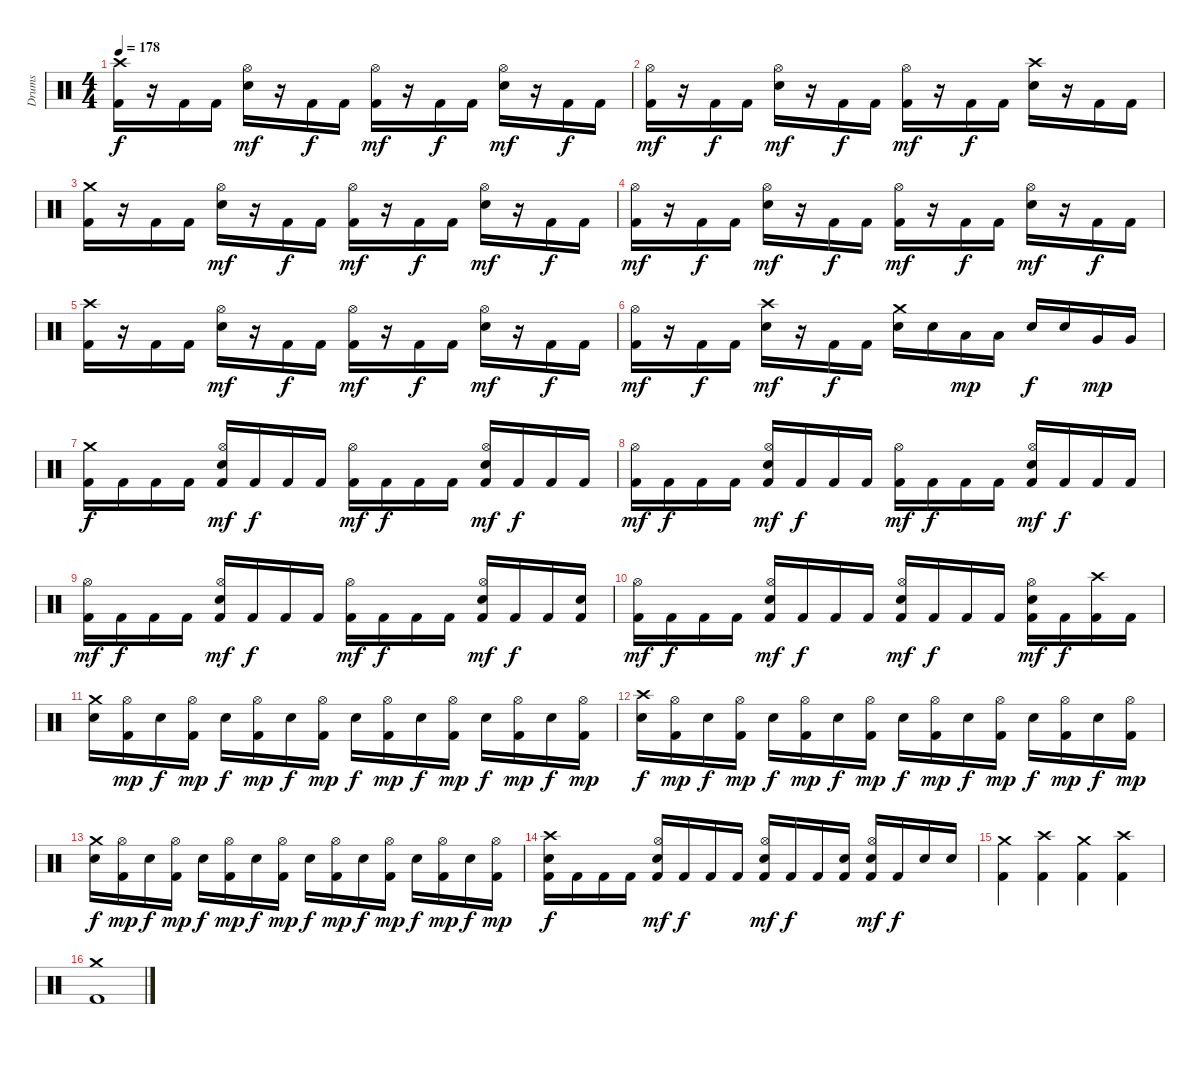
\track ("Drums" "Drums") {instrument percussion}
\staff {score}
\articulation defaults
\ts (4 4)
\tempo 178
\clef neutral
\ks c
("Crash high (hit)" "Kick (hit) 2").16{dy f} r.16 "Kick (hit) 2".16 "Kick (hit) 2".16 ("Hi-Hat (open)" "Snare (hit) 2").16{dy mf} r.16 "Kick (hit) 2".16{dy f} "Kick (hit) 2".16 ("Hi-Hat (open)" "Kick (hit) 2").16{dy mf} r.16 "Kick (hit) 2".16{dy f} "Kick (hit) 2".16 ("Hi-Hat (open)" "Snare (hit) 2").16{dy mf} r.16 "Kick (hit) 2".16{dy f} "Kick (hit) 2".16 |
("Hi-Hat (open)" "Kick (hit) 2").16{dy mf} r.16 "Kick (hit) 2".16{dy f} "Kick (hit) 2".16 ("Hi-Hat (open)" "Snare (hit) 2").16{dy mf} r.16 "Kick (hit) 2".16{dy f} "Kick (hit) 2".16 ("Hi-Hat (open)" "Kick (hit) 2").16{dy mf} r.16 "Kick (hit) 2".16{dy f} "Kick (hit) 2".16 ("Crash high (hit)" "Snare (hit) 2").16 r.16 "Kick (hit) 2".16 "Kick (hit) 2".16 |
("Crash medium (hit)" "Kick (hit) 2").16 r.16 "Kick (hit) 2".16 "Kick (hit) 2".16 ("Hi-Hat (open)" "Snare (hit) 2").16{dy mf} r.16 "Kick (hit) 2".16{dy f} "Kick (hit) 2".16 ("Hi-Hat (open)" "Kick (hit) 2").16{dy mf} r.16 "Kick (hit) 2".16{dy f} "Kick (hit) 2".16 ("Hi-Hat (open)" "Snare (hit) 2").16{dy mf} r.16 "Kick (hit) 2".16{dy f} "Kick (hit) 2".16 |
("Hi-Hat (open)" "Kick (hit) 2").16{dy mf} r.16 "Kick (hit) 2".16{dy f} "Kick (hit) 2".16 ("Hi-Hat (open)" "Snare (hit) 2").16{dy mf} r.16 "Kick (hit) 2".16{dy f} "Kick (hit) 2".16 ("Hi-Hat (open)" "Kick (hit) 2").16{dy mf} r.16 "Kick (hit) 2".16{dy f} "Kick (hit) 2".16 ("Hi-Hat (open)" "Snare (hit) 2").16{dy mf} r.16 "Kick (hit) 2".16{dy f} "Kick (hit) 2".16 |
("Crash high (hit)" "Kick (hit) 2").16 r.16 "Kick (hit) 2".16 "Kick (hit) 2".16 ("Hi-Hat (open)" "Snare (hit) 2").16{dy mf} r.16 "Kick (hit) 2".16{dy f} "Kick (hit) 2".16 ("Hi-Hat (open)" "Kick (hit) 2").16{dy mf} r.16 "Kick (hit) 2".16{dy f} "Kick (hit) 2".16 ("Hi-Hat (open)" "Snare (hit) 2").16{dy mf} r.16 "Kick (hit) 2".16{dy f} "Kick (hit) 2".16 |
("Hi-Hat (open)" "Kick (hit) 2").16{dy mf} r.16 "Kick (hit) 2".16{dy f} "Kick (hit) 2".16 ("Crash high (hit)" "Snare (hit) 2").16{dy mf} r.16 "Kick (hit) 2".16{dy f} "Kick (hit) 2".16 ("Crash medium (hit)" "Snare (hit) 2").16 "Snare (hit) 2".16 "Low Tom (hit)".16{dy mp} "Low Tom (hit)".16 "Snare (hit) 2".16{dy f} "Snare (hit) 2".16 "Very Low Tom (hit)".16{dy mp} "Very Low Tom (hit)".16 |
("Crash medium (hit)" "Kick (hit) 2").16{dy f} "Kick (hit) 2".16 "Kick (hit) 2".16 "Kick (hit) 2".16 ("Hi-Hat (open)" "Snare (hit) 2" "Kick (hit) 2").16{dy mf} "Kick (hit) 2".16{dy f} "Kick (hit) 2".16 "Kick (hit) 2".16 ("Hi-Hat (open)" "Kick (hit) 2").16{dy mf} "Kick (hit) 2".16{dy f} "Kick (hit) 2".16 "Kick (hit) 2".16 ("Hi-Hat (open)" "Snare (hit) 2" "Kick (hit) 2").16{dy mf} "Kick (hit) 2".16{dy f} "Kick (hit) 2".16 "Kick (hit) 2".16 |
("Hi-Hat (open)" "Kick (hit) 2").16{dy mf} "Kick (hit) 2".16{dy f} "Kick (hit) 2".16 "Kick (hit) 2".16 ("Hi-Hat (open)" "Snare (hit) 2" "Kick (hit) 2").16{dy mf} "Kick (hit) 2".16{dy f} "Kick (hit) 2".16 "Kick (hit) 2".16 ("Hi-Hat (open)" "Kick (hit) 2").16{dy mf} "Kick (hit) 2".16{dy f} "Kick (hit) 2".16 "Kick (hit) 2".16 ("Hi-Hat (open)" "Snare (hit) 2" "Kick (hit) 2").16{dy mf} "Kick (hit) 2".16{dy f} "Kick (hit) 2".16 "Kick (hit) 2".16 |
("Hi-Hat (open)" "Kick (hit) 2").16{dy mf} "Kick (hit) 2".16{dy f} "Kick (hit) 2".16 "Kick (hit) 2".16 ("Hi-Hat (open)" "Snare (hit) 2" "Kick (hit) 2").16{dy mf} "Kick (hit) 2".16{dy f} "Kick (hit) 2".16 "Kick (hit) 2".16 ("Hi-Hat (open)" "Kick (hit) 2").16{dy mf} "Kick (hit) 2".16{dy f} "Kick (hit) 2".16 "Kick (hit) 2".16 ("Hi-Hat (open)" "Snare (hit) 2" "Kick (hit) 2").16{dy mf} "Kick (hit) 2".16{dy f} "Kick (hit) 2".16 ("Snare (hit) 2" "Kick (hit) 2").16 |
("Hi-Hat (open)" "Kick (hit) 2").16{dy mf} "Kick (hit) 2".16{dy f} "Kick (hit) 2".16 "Kick (hit) 2".16 ("Hi-Hat (open)" "Snare (hit) 2" "Kick (hit) 2").16{dy mf} "Kick (hit) 2".16{dy f} "Kick (hit) 2".16 "Kick (hit) 2".16 ("Hi-Hat (open)" "Snare (hit) 2" "Kick (hit) 2").16{dy mf} "Kick (hit) 2".16{dy f} "Kick (hit) 2".16 "Kick (hit) 2".16 ("Hi-Hat (open)" "Snare (hit) 2" "Kick (hit) 2").16{dy mf} "Kick (hit) 2".16{dy f} ("Crash high (hit)" "Kick (hit) 2").16 "Kick (hit) 2".16 |
("Crash medium (hit)" "Snare (hit) 2").16 ("Hi-Hat (open)" "Kick (hit) 2").16{dy mp} "Snare (hit) 2".16{dy f} ("Hi-Hat (open)" "Kick (hit) 2").16{dy mp} "Snare (hit) 2".16{dy f} ("Hi-Hat (open)" "Kick (hit) 2").16{dy mp} "Snare (hit) 2".16{dy f} ("Hi-Hat (open)" "Kick (hit) 2").16{dy mp} "Snare (hit) 2".16{dy f} ("Hi-Hat (open)" "Kick (hit) 2").16{dy mp} "Snare (hit) 2".16{dy f} ("Hi-Hat (open)" "Kick (hit) 2").16{dy mp} "Snare (hit) 2".16{dy f} ("Hi-Hat (open)" "Kick (hit) 2").16{dy mp} "Snare (hit) 2".16{dy f} ("Hi-Hat (open)" "Kick (hit) 2").16{dy mp} |
("Crash high (hit)" "Snare (hit) 2").16{dy f} ("Hi-Hat (open)" "Kick (hit) 2").16{dy mp} "Snare (hit) 2".16{dy f} ("Hi-Hat (open)" "Kick (hit) 2").16{dy mp} "Snare (hit) 2".16{dy f} ("Hi-Hat (open)" "Kick (hit) 2").16{dy mp} "Snare (hit) 2".16{dy f} ("Hi-Hat (open)" "Kick (hit) 2").16{dy mp} "Snare (hit) 2".16{dy f} ("Hi-Hat (open)" "Kick (hit) 2").16{dy mp} "Snare (hit) 2".16{dy f} ("Hi-Hat (open)" "Kick (hit) 2").16{dy mp} "Snare (hit) 2".16{dy f} ("Hi-Hat (open)" "Kick (hit) 2").16{dy mp} "Snare (hit) 2".16{dy f} ("Hi-Hat (open)" "Kick (hit) 2").16{dy mp} |
("Crash medium (hit)" "Snare (hit) 2").16{dy f} ("Hi-Hat (open)" "Kick (hit) 2").16{dy mp} "Snare (hit) 2".16{dy f} ("Hi-Hat (open)" "Kick (hit) 2").16{dy mp} "Snare (hit) 2".16{dy f} ("Hi-Hat (open)" "Kick (hit) 2").16{dy mp} "Snare (hit) 2".16{dy f} ("Hi-Hat (open)" "Kick (hit) 2").16{dy mp} "Snare (hit) 2".16{dy f} ("Hi-Hat (open)" "Kick (hit) 2").16{dy mp} "Snare (hit) 2".16{dy f} ("Hi-Hat (open)" "Kick (hit) 2").16{dy mp} "Snare (hit) 2".16{dy f} ("Hi-Hat (open)" "Kick (hit) 2").16{dy mp} "Snare (hit) 2".16{dy f} ("Hi-Hat (open)" "Kick (hit) 2").16{dy mp} |
("Crash high (hit)" "Snare (hit) 2" "Kick (hit) 2").16{dy f} "Kick (hit) 2".16 "Kick (hit) 2".16 "Kick (hit) 2".16 ("Hi-Hat (open)" "Snare (hit) 2" "Kick (hit) 2").16{dy mf} "Kick (hit) 2".16{dy f} "Kick (hit) 2".16 "Kick (hit) 2".16 ("Hi-Hat (open)" "Snare (hit) 2" "Kick (hit) 2").16{dy mf} "Kick (hit) 2".16{dy f} "Kick (hit) 2".16 ("Snare (hit) 2" "Kick (hit) 2").16 ("Hi-Hat (open)" "Snare (hit) 2" "Kick (hit) 2").16{dy mf} "Kick (hit) 2".16{dy f} "Snare (hit) 2".16 "Snare (hit) 2".16 |
("Crash medium (hit)" "Kick (hit) 2").4 ("Crash high (hit)" "Kick (hit) 2").4 ("Crash medium (hit)" "Kick (hit) 2").4 ("Crash high (hit)" "Kick (hit) 2").4 |
("Crash medium (hit)" "Kick (hit) 2").1
